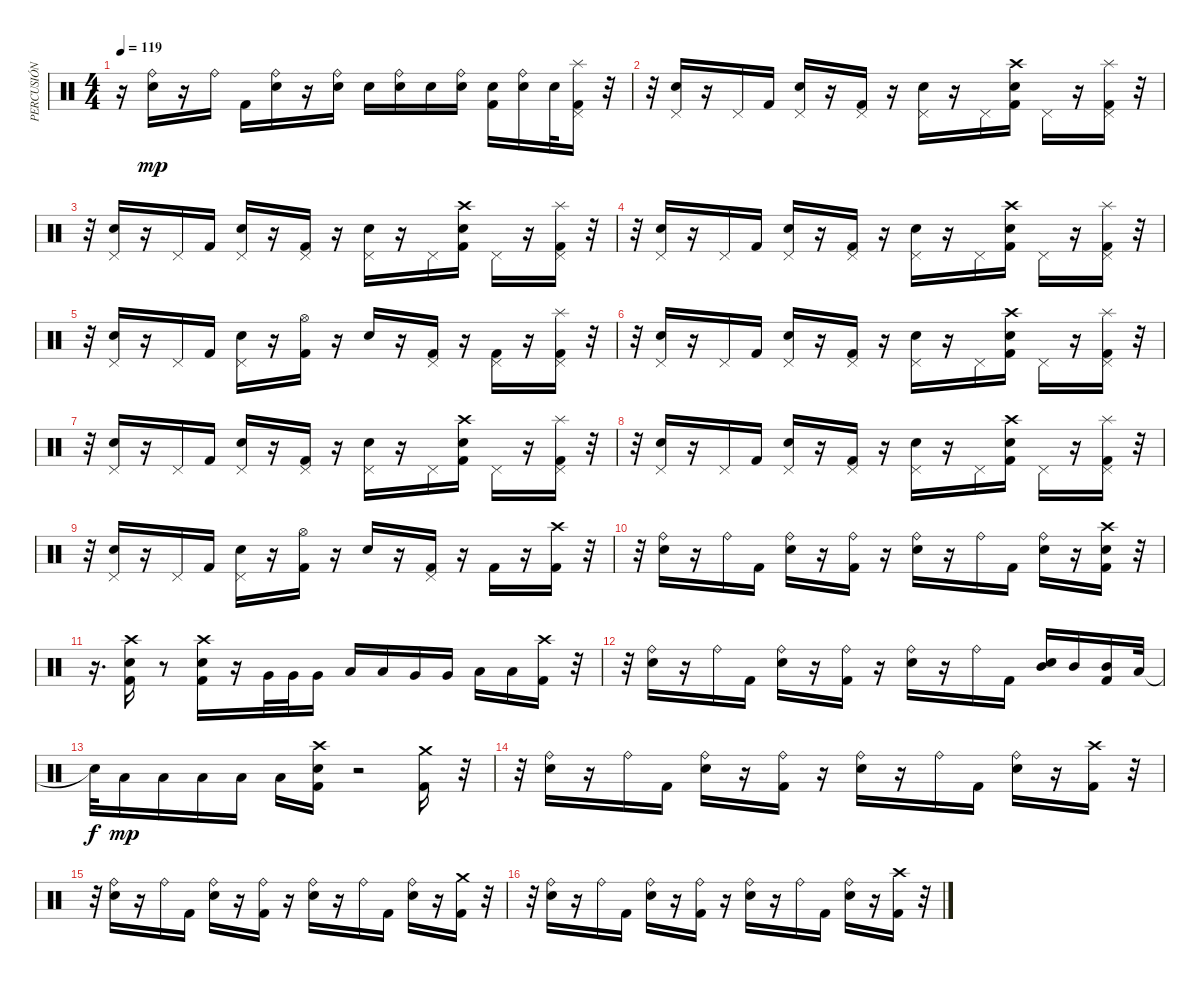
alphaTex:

\track ("PERCUSIÓN" "PERCUSIÓN") {instrument percussion}
\staff {score}
\articulation defaults
\ts (4 4)
\tempo 119
\clef neutral
\ks c
r.16{dy mp} ("Snare (hit) 2" "Ride (bell)").16 r.16 "Ride (bell)".16 "Kick (hit) 2".16 ("Snare (hit) 2" "Ride (bell)").16 r.16 ("Electric Snare (hit)" "Ride (bell)").16 "Electric Snare (hit)".16 ("Electric Snare (hit)" "Ride (bell)").16 "Electric Snare (hit)".16 ("Snare (hit) 2" "Ride (bell)").16 ("Kick (hit) 2" "Snare (hit) 2").16 ("Snare (hit) 2" "Ride (bell)").16 "Snare (hit) 2".32 ("Kick (hit) 2" "Pedal Hi-Hat (hit)" "Splash (hit)").16 r.32 |
r.32 ("Snare (hit) 2" "Pedal Hi-Hat (hit)").16 r.16 "Pedal Hi-Hat (hit)".16 "Kick (hit) 2".16 ("Snare (hit) 2" "Pedal Hi-Hat (hit)").16 r.16 ("Kick (hit) 2" "Pedal Hi-Hat (hit)").16 r.16 ("Snare (hit) 2" "Pedal Hi-Hat (hit)").16 r.16 "Pedal Hi-Hat (hit)".16 ("Kick (hit) 2" "Snare (hit) 2" "Crash high (hit)").16 "Pedal Hi-Hat (hit)".16 r.16 ("Pedal Hi-Hat (hit)" "Kick (hit) 2" "Splash (hit)").16 r.32 |
r.32 ("Snare (hit) 2" "Pedal Hi-Hat (hit)").16 r.16 "Pedal Hi-Hat (hit)".16 "Kick (hit) 2".16 ("Snare (hit) 2" "Pedal Hi-Hat (hit)").16 r.16 ("Kick (hit) 2" "Pedal Hi-Hat (hit)").16 r.16 ("Snare (hit) 2" "Pedal Hi-Hat (hit)").16 r.16 "Pedal Hi-Hat (hit)".16 ("Kick (hit) 2" "Snare (hit) 2" "Crash high (hit)").16 "Pedal Hi-Hat (hit)".16 r.16 ("Pedal Hi-Hat (hit)" "Kick (hit) 2" "Splash (hit)").16 r.32 |
r.32 ("Snare (hit) 2" "Pedal Hi-Hat (hit)").16 r.16 "Pedal Hi-Hat (hit)".16 "Kick (hit) 2".16 ("Snare (hit) 2" "Pedal Hi-Hat (hit)").16 r.16 ("Kick (hit) 2" "Pedal Hi-Hat (hit)").16 r.16 ("Snare (hit) 2" "Pedal Hi-Hat (hit)").16 r.16 "Pedal Hi-Hat (hit)".16 ("Kick (hit) 2" "Snare (hit) 2" "Crash high (hit)").16 "Pedal Hi-Hat (hit)".16 r.16 ("Pedal Hi-Hat (hit)" "Kick (hit) 2" "Splash (hit)").16 r.32 |
r.32 ("Snare (hit) 2" "Pedal Hi-Hat (hit)").16 r.16 "Pedal Hi-Hat (hit)".16 "Kick (hit) 2".16 ("Snare (hit) 2" "Pedal Hi-Hat (hit)").16 r.16 ("Kick (hit) 2" "Hi-Hat (open)").16 r.16 "Snare (hit) 2".16 r.16 ("Kick (hit) 2" "Pedal Hi-Hat (hit)").16 r.16 ("Kick (hit) 2" "Pedal Hi-Hat (hit)").16 r.16 ("Kick (hit) 2" "Pedal Hi-Hat (hit)" "Splash (hit)").16 r.32 |
r.32 ("Snare (hit) 2" "Pedal Hi-Hat (hit)").16 r.16 "Pedal Hi-Hat (hit)".16 "Kick (hit) 2".16 ("Snare (hit) 2" "Pedal Hi-Hat (hit)").16 r.16 ("Kick (hit) 2" "Pedal Hi-Hat (hit)").16 r.16 ("Snare (hit) 2" "Pedal Hi-Hat (hit)").16 r.16 "Pedal Hi-Hat (hit)".16 ("Kick (hit) 2" "Snare (hit) 2" "Crash high (hit)").16 "Pedal Hi-Hat (hit)".16 r.16 ("Pedal Hi-Hat (hit)" "Kick (hit) 2" "Splash (hit)").16 r.32 |
r.32 ("Snare (hit) 2" "Pedal Hi-Hat (hit)").16 r.16 "Pedal Hi-Hat (hit)".16 "Kick (hit) 2".16 ("Snare (hit) 2" "Pedal Hi-Hat (hit)").16 r.16 ("Kick (hit) 2" "Pedal Hi-Hat (hit)").16 r.16 ("Snare (hit) 2" "Pedal Hi-Hat (hit)").16 r.16 "Pedal Hi-Hat (hit)".16 ("Kick (hit) 2" "Snare (hit) 2" "Crash high (hit)").16 "Pedal Hi-Hat (hit)".16 r.16 ("Pedal Hi-Hat (hit)" "Kick (hit) 2" "Splash (hit)").16 r.32 |
r.32 ("Snare (hit) 2" "Pedal Hi-Hat (hit)").16 r.16 "Pedal Hi-Hat (hit)".16 "Kick (hit) 2".16 ("Snare (hit) 2" "Pedal Hi-Hat (hit)").16 r.16 ("Kick (hit) 2" "Pedal Hi-Hat (hit)").16 r.16 ("Snare (hit) 2" "Pedal Hi-Hat (hit)").16 r.16 "Pedal Hi-Hat (hit)".16 ("Kick (hit) 2" "Snare (hit) 2" "Crash high (hit)").16 "Pedal Hi-Hat (hit)".16 r.16 ("Pedal Hi-Hat (hit)" "Kick (hit) 2" "Splash (hit)").16 r.32 |
r.32 ("Snare (hit) 2" "Pedal Hi-Hat (hit)").16 r.16 "Pedal Hi-Hat (hit)".16 "Kick (hit) 2".16 ("Snare (hit) 2" "Pedal Hi-Hat (hit)").16 r.16 ("Kick (hit) 2" "Hi-Hat (open)").16 r.16 "Snare (hit) 2".16 r.16 ("Kick (hit) 2" "Pedal Hi-Hat (hit)").16 r.16 "Kick (hit) 2".16 r.16 ("Kick (hit) 2" "Crash high (hit)").16 r.32 |
r.32 ("Snare (hit) 2" "Ride (bell)").16 r.16 "Ride (bell)".16 "Kick (hit) 2".16 ("Snare (hit) 2" "Ride (bell)").16 r.16 ("Kick (hit) 2" "Ride (bell)").16 r.16 ("Snare (hit) 2" "Ride (bell)").16 r.16 "Ride (bell)".16 "Kick (hit) 2".16 ("Snare (hit) 2" "Ride (bell)").16 r.16 ("Kick (hit) 2" "Snare (hit) 2" "Crash high (hit)").16 r.32 |
r.16{d} ("Kick (hit) 2" "Snare (hit) 2" "Crash high (hit)").16 r.8 ("Kick (hit) 2" "Snare (hit) 2" "Crash high (hit)").16 r.16 "Very Low Tom (hit)".32 "Very Low Tom (hit)".32 "Very Low Tom (hit)".16 "Low Floor Tom (hit)".16 "Low Floor Tom (hit)".16 "Very Low Tom (hit)".16 "Very Low Tom (hit)".16 "Low Floor Tom (hit)".16 "Low Floor Tom (hit)".16 ("Crash high (hit)" "Kick (hit) 2").16 r.32 |
r.32 ("Snare (hit) 2" "Ride (bell)").16 r.16 "Ride (bell)".16 "Kick (hit) 2".16 ("Snare (hit) 2" "Ride (bell)").16 r.16 ("Kick (hit) 2" "Ride (bell)").16 r.16 ("Snare (hit) 2" "Ride (bell)").16 r.16 "Ride (bell)".16 "Kick (hit) 2".16 ("Snare (hit) 2" "Mid Tom (hit)").16 "Mid Tom (hit)".16 ("Kick (hit) 2" "Mid Tom (hit)").16 "Low Tom (hit)".32 |
"Snare (hit)"{t}.32{dy f} "Low Tom (hit)".16{dy mp} "Low Tom (hit)".16 "Low Floor Tom (hit)".16 "Low Floor Tom (hit)".16 "Low Floor Tom (hit)".16 ("Snare (hit) 2" "Kick (hit) 2" "Crash high (hit)").16 r.2 ("Kick (hit) 2" "Crash medium (hit)").16 r.32 |
r.32 ("Snare (hit) 2" "Ride (bell)").16 r.16 "Ride (bell)".16 "Kick (hit) 2".16 ("Snare (hit) 2" "Ride (bell)").16 r.16 ("Kick (hit) 2" "Ride (bell)").16 r.16 ("Snare (hit) 2" "Ride (bell)").16 r.16 "Ride (bell)".16 "Kick (hit) 2".16 ("Snare (hit) 2" "Ride (bell)").16 r.16 ("Crash high (hit)" "Kick (hit) 2").16 r.32 |
r.32 ("Snare (hit) 2" "Ride (bell)").16 r.16 "Ride (bell)".16 "Kick (hit) 2".16 ("Snare (hit) 2" "Ride (bell)").16 r.16 ("Kick (hit) 2" "Ride (bell)").16 r.16 ("Snare (hit) 2" "Ride (bell)").16 r.16 "Ride (bell)".16 "Kick (hit) 2".16 ("Snare (hit) 2" "Ride (bell)").16 r.16 ("Kick (hit) 2" "Crash medium (hit)").16 r.32 |
r.32 ("Snare (hit) 2" "Ride (bell)").16 r.16 "Ride (bell)".16 "Kick (hit) 2".16 ("Snare (hit) 2" "Ride (bell)").16 r.16 ("Kick (hit) 2" "Ride (bell)").16 r.16 ("Snare (hit) 2" "Ride (bell)").16 r.16 "Ride (bell)".16 "Kick (hit) 2".16 ("Snare (hit) 2" "Ride (bell)").16 r.16 ("Crash high (hit)" "Kick (hit) 2").16 r.32
